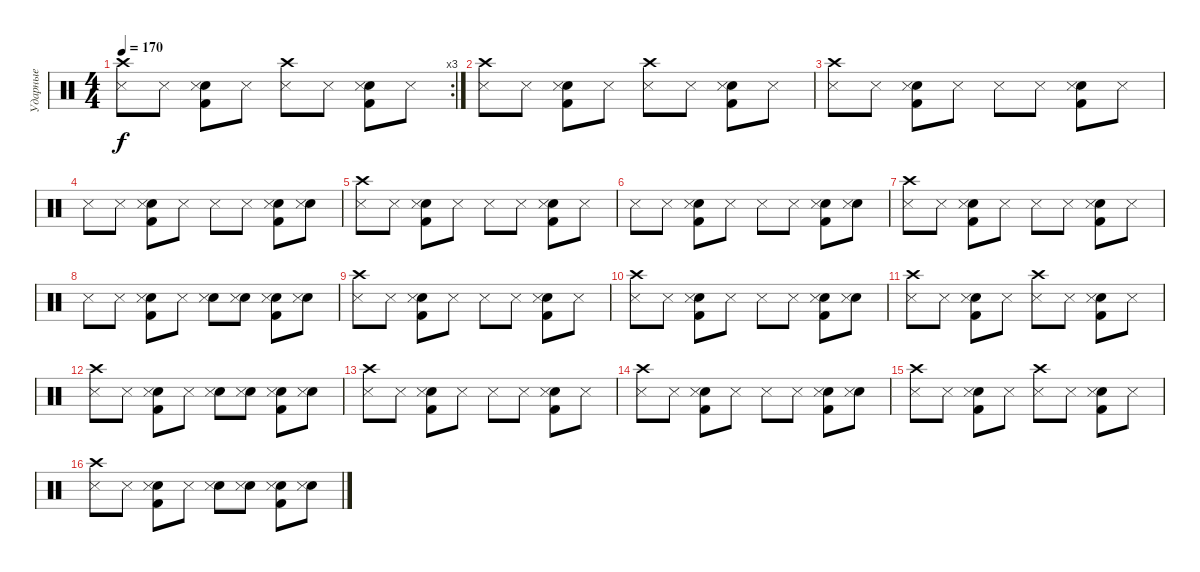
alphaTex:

\track ("Ударные" "Ударные") {instrument percussion}
\staff {score}
\articulation defaults
\rc 3
\ts (4 4)
\tempo 170
\clef neutral
\ks c
("Crash high (hit)" "Snare (side stick) 3").8{dy f} "Snare (side stick) 3".8 ("Kick (hit) 2" "Snare (hit) 2" "Snare (side stick) 3").8 "Snare (side stick) 3".8 ("Crash high (hit)" "Snare (side stick) 3").8 "Snare (side stick) 3".8 ("Kick (hit) 2" "Snare (hit) 2" "Snare (side stick) 3").8 "Snare (side stick) 3".8 |
("Crash high (hit)" "Snare (side stick) 3").8 "Snare (side stick) 3".8 ("Kick (hit) 2" "Snare (hit) 2" "Snare (side stick) 3").8 "Snare (side stick) 3".8 ("Crash high (hit)" "Snare (side stick) 3").8 "Snare (side stick) 3".8 ("Kick (hit) 2" "Snare (hit) 2" "Snare (side stick) 3").8 "Snare (side stick) 3".8 |
("Crash high (hit)" "Snare (side stick) 3").8 "Snare (side stick) 3".8 ("Kick (hit) 2" "Snare (hit) 2" "Snare (side stick) 3").8 "Snare (side stick) 3".8 "Snare (side stick) 3".8 "Snare (side stick) 3".8 ("Kick (hit) 2" "Snare (hit) 2" "Snare (side stick) 3").8 "Snare (side stick) 3".8 |
"Snare (side stick) 3".8 "Snare (side stick) 3".8 ("Kick (hit) 2" "Snare (hit) 2" "Snare (side stick) 3").8 "Snare (side stick) 3".8 "Snare (side stick) 3".8 "Snare (side stick) 3".8 ("Kick (hit) 2" "Snare (hit) 2" "Snare (side stick) 3").8 ("Snare (hit) 2" "Snare (side stick) 3").8 |
("Crash high (hit)" "Snare (side stick) 3").8 "Snare (side stick) 3".8 ("Kick (hit) 2" "Snare (hit) 2" "Snare (side stick) 3").8 "Snare (side stick) 3".8 "Snare (side stick) 3".8 "Snare (side stick) 3".8 ("Kick (hit) 2" "Snare (hit) 2" "Snare (side stick) 3").8 "Snare (side stick) 3".8 |
"Snare (side stick) 3".8 "Snare (side stick) 3".8 ("Kick (hit) 2" "Snare (hit) 2" "Snare (side stick) 3").8 "Snare (side stick) 3".8 "Snare (side stick) 3".8 "Snare (side stick) 3".8 ("Kick (hit) 2" "Snare (hit) 2" "Snare (side stick) 3").8 ("Snare (hit) 2" "Snare (side stick) 3").8 |
("Crash high (hit)" "Snare (side stick) 3").8 "Snare (side stick) 3".8 ("Kick (hit) 2" "Snare (hit) 2" "Snare (side stick) 3").8 "Snare (side stick) 3".8 "Snare (side stick) 3".8 "Snare (side stick) 3".8 ("Kick (hit) 2" "Snare (hit) 2" "Snare (side stick) 3").8 "Snare (side stick) 3".8 |
"Snare (side stick) 3".8 "Snare (side stick) 3".8 ("Kick (hit) 2" "Snare (hit) 2" "Snare (side stick) 3").8 "Snare (side stick) 3".8 ("Snare (hit) 2" "Snare (side stick) 3").8 ("Snare (hit) 2" "Snare (side stick) 3").8 ("Kick (hit) 2" "Snare (hit) 2" "Snare (side stick) 3").8 ("Snare (hit) 2" "Snare (side stick) 3").8 |
("Crash high (hit)" "Snare (side stick) 3").8 "Snare (side stick) 3".8 ("Kick (hit) 2" "Snare (hit) 2" "Snare (side stick) 3").8 "Snare (side stick) 3".8 "Snare (side stick) 3".8 "Snare (side stick) 3".8 ("Kick (hit) 2" "Snare (hit) 2" "Snare (side stick) 3").8 "Snare (side stick) 3".8 |
("Crash high (hit)" "Snare (side stick) 3").8 "Snare (side stick) 3".8 ("Kick (hit) 2" "Snare (hit) 2" "Snare (side stick) 3").8 "Snare (side stick) 3".8 "Snare (side stick) 3".8 "Snare (side stick) 3".8 ("Kick (hit) 2" "Snare (hit) 2" "Snare (side stick) 3").8 ("Snare (hit) 2" "Snare (side stick) 3").8 |
("Crash high (hit)" "Snare (side stick) 3").8 "Snare (side stick) 3".8 ("Kick (hit) 2" "Snare (hit) 2" "Snare (side stick) 3").8 "Snare (side stick) 3".8 ("Crash high (hit)" "Snare (side stick) 3").8 "Snare (side stick) 3".8 ("Kick (hit) 2" "Snare (hit) 2" "Snare (side stick) 3").8 "Snare (side stick) 3".8 |
("Crash high (hit)" "Snare (side stick) 3").8 "Snare (side stick) 3".8 ("Kick (hit) 2" "Snare (hit) 2" "Snare (side stick) 3").8 "Snare (side stick) 3".8 ("Snare (hit) 2" "Snare (side stick) 3").8 ("Snare (hit) 2" "Snare (side stick) 3").8 ("Kick (hit) 2" "Snare (hit) 2" "Snare (side stick) 3").8 ("Snare (hit) 2" "Snare (side stick) 3").8 |
("Crash high (hit)" "Snare (side stick) 3").8 "Snare (side stick) 3".8 ("Kick (hit) 2" "Snare (hit) 2" "Snare (side stick) 3").8 "Snare (side stick) 3".8 "Snare (side stick) 3".8 "Snare (side stick) 3".8 ("Kick (hit) 2" "Snare (hit) 2" "Snare (side stick) 3").8 "Snare (side stick) 3".8 |
("Crash high (hit)" "Snare (side stick) 3").8 "Snare (side stick) 3".8 ("Kick (hit) 2" "Snare (hit) 2" "Snare (side stick) 3").8 "Snare (side stick) 3".8 "Snare (side stick) 3".8 "Snare (side stick) 3".8 ("Kick (hit) 2" "Snare (hit) 2" "Snare (side stick) 3").8 ("Snare (hit) 2" "Snare (side stick) 3").8 |
("Crash high (hit)" "Snare (side stick) 3").8 "Snare (side stick) 3".8 ("Kick (hit) 2" "Snare (hit) 2" "Snare (side stick) 3").8 "Snare (side stick) 3".8 ("Crash high (hit)" "Snare (side stick) 3").8 "Snare (side stick) 3".8 ("Kick (hit) 2" "Snare (hit) 2" "Snare (side stick) 3").8 "Snare (side stick) 3".8 |
("Crash high (hit)" "Snare (side stick) 3").8 "Snare (side stick) 3".8 ("Kick (hit) 2" "Snare (hit) 2" "Snare (side stick) 3").8 "Snare (side stick) 3".8 ("Snare (hit) 2" "Snare (side stick) 3").8 ("Snare (hit) 2" "Snare (side stick) 3").8 ("Kick (hit) 2" "Snare (hit) 2" "Snare (side stick) 3").8 ("Snare (hit) 2" "Snare (side stick) 3").8
